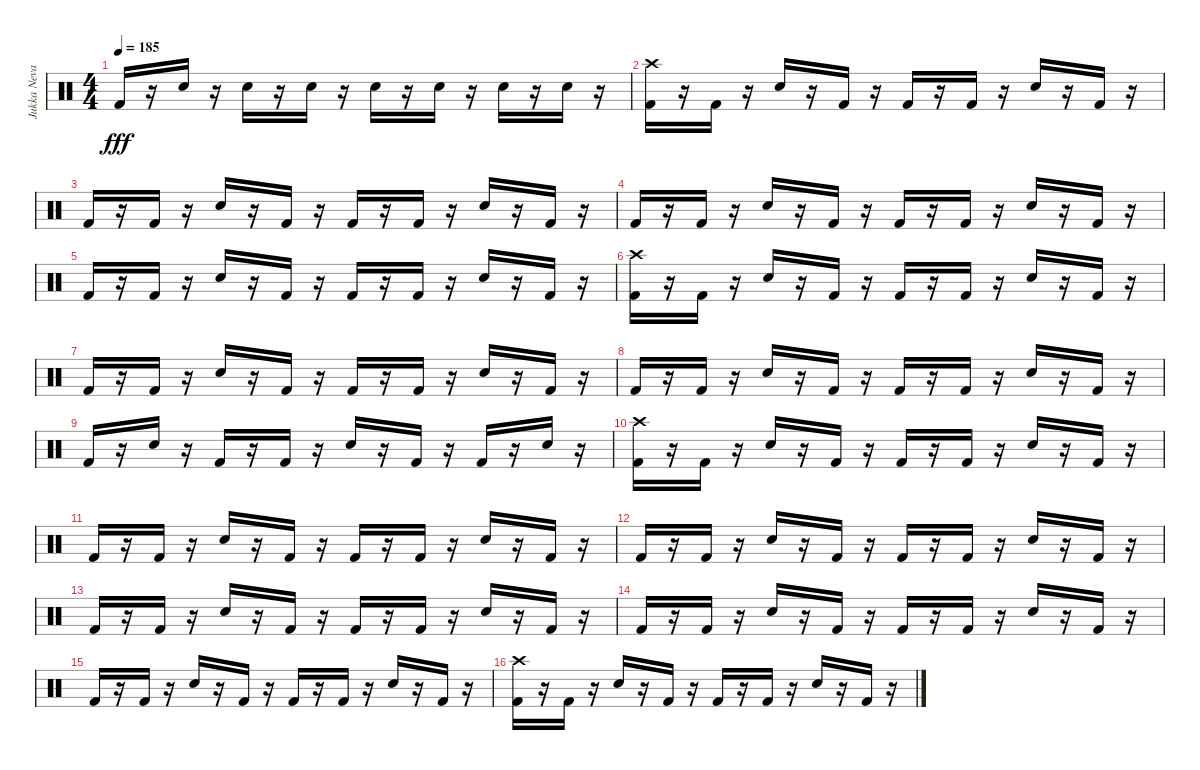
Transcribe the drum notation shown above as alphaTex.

\track ("Jukka Nevalinen" "Jukka Neva") {instrument percussion}
\staff {score}
\articulation defaults
\ts (4 4)
\tempo 185
\clef neutral
\ks c "Kick (hit) 2".16{dy fff}
r.16 "Snare (hit) 2".16 r.16 "Snare (hit) 2".16 r.16 "Snare (hit) 2".16 r.16 "Snare (hit) 2".16 r.16 "Snare (hit) 2".16 r.16 "Snare (hit) 2".16 r.16 "Snare (hit) 2".16 r.16 |
("Kick (hit) 2" "Crash high (hit)").16 r.16 "Kick (hit) 2".16 r.16 "Snare (hit) 2".16 r.16 "Kick (hit) 2".16 r.16 "Kick (hit) 2".16 r.16 "Kick (hit) 2".16 r.16 "Snare (hit) 2".16 r.16 "Kick (hit) 2".16 r.16 |
"Kick (hit) 2".16 r.16 "Kick (hit) 2".16 r.16 "Snare (hit) 2".16 r.16 "Kick (hit) 2".16 r.16 "Kick (hit) 2".16 r.16 "Kick (hit) 2".16 r.16 "Snare (hit) 2".16 r.16 "Kick (hit) 2".16 r.16 |
"Kick (hit) 2".16 r.16 "Kick (hit) 2".16 r.16 "Snare (hit) 2".16 r.16 "Kick (hit) 2".16 r.16 "Kick (hit) 2".16 r.16 "Kick (hit) 2".16 r.16 "Snare (hit) 2".16 r.16 "Kick (hit) 2".16 r.16 |
"Kick (hit) 2".16 r.16 "Kick (hit) 2".16 r.16 "Snare (hit) 2".16 r.16 "Kick (hit) 2".16 r.16 "Kick (hit) 2".16 r.16 "Kick (hit) 2".16 r.16 "Snare (hit) 2".16 r.16 "Kick (hit) 2".16 r.16 |
("Kick (hit) 2" "Crash high (hit)").16 r.16 "Kick (hit) 2".16 r.16 "Snare (hit) 2".16 r.16 "Kick (hit) 2".16 r.16 "Kick (hit) 2".16 r.16 "Kick (hit) 2".16 r.16 "Snare (hit) 2".16 r.16 "Kick (hit) 2".16 r.16 |
"Kick (hit) 2".16 r.16 "Kick (hit) 2".16 r.16 "Snare (hit) 2".16 r.16 "Kick (hit) 2".16 r.16 "Kick (hit) 2".16 r.16 "Kick (hit) 2".16 r.16 "Snare (hit) 2".16 r.16 "Kick (hit) 2".16 r.16 |
"Kick (hit) 2".16 r.16 "Kick (hit) 2".16 r.16 "Snare (hit) 2".16 r.16 "Kick (hit) 2".16 r.16 "Kick (hit) 2".16 r.16 "Kick (hit) 2".16 r.16 "Snare (hit) 2".16 r.16 "Kick (hit) 2".16 r.16 |
"Kick (hit) 2".16 r.16 "Snare (hit) 2".16 r.16 "Kick (hit) 2".16 r.16 "Kick (hit) 2".16 r.16 "Snare (hit) 2".16 r.16 "Kick (hit) 2".16 r.16 "Kick (hit) 2".16 r.16 "Snare (hit) 2".16 r.16 |
("Kick (hit) 2" "Crash high (hit)").16 r.16 "Kick (hit) 2".16 r.16 "Snare (hit) 2".16 r.16 "Kick (hit) 2".16 r.16 "Kick (hit) 2".16 r.16 "Kick (hit) 2".16 r.16 "Snare (hit) 2".16 r.16 "Kick (hit) 2".16 r.16 |
"Kick (hit) 2".16 r.16 "Kick (hit) 2".16 r.16 "Snare (hit) 2".16 r.16 "Kick (hit) 2".16 r.16 "Kick (hit) 2".16 r.16 "Kick (hit) 2".16 r.16 "Snare (hit) 2".16 r.16 "Kick (hit) 2".16 r.16 |
"Kick (hit) 2".16 r.16 "Kick (hit) 2".16 r.16 "Snare (hit) 2".16 r.16 "Kick (hit) 2".16 r.16 "Kick (hit) 2".16 r.16 "Kick (hit) 2".16 r.16 "Snare (hit) 2".16 r.16 "Kick (hit) 2".16 r.16 |
"Kick (hit) 2".16 r.16 "Kick (hit) 2".16 r.16 "Snare (hit) 2".16 r.16 "Kick (hit) 2".16 r.16 "Kick (hit) 2".16 r.16 "Kick (hit) 2".16 r.16 "Snare (hit) 2".16 r.16 "Kick (hit) 2".16 r.16 |
"Kick (hit) 2".16 r.16 "Kick (hit) 2".16 r.16 "Snare (hit) 2".16 r.16 "Kick (hit) 2".16 r.16 "Kick (hit) 2".16 r.16 "Kick (hit) 2".16 r.16 "Snare (hit) 2".16 r.16 "Kick (hit) 2".16 r.16 |
"Kick (hit) 2".16 r.16 "Kick (hit) 2".16 r.16 "Snare (hit) 2".16 r.16 "Kick (hit) 2".16 r.16 "Kick (hit) 2".16 r.16 "Kick (hit) 2".16 r.16 "Snare (hit) 2".16 r.16 "Kick (hit) 2".16 r.16 |
("Kick (hit) 2" "Crash high (hit)").16 r.16 "Kick (hit) 2".16 r.16 "Snare (hit) 2".16 r.16 "Kick (hit) 2".16 r.16 "Kick (hit) 2".16 r.16 "Kick (hit) 2".16 r.16 "Snare (hit) 2".16 r.16 "Kick (hit) 2".16 r.16
